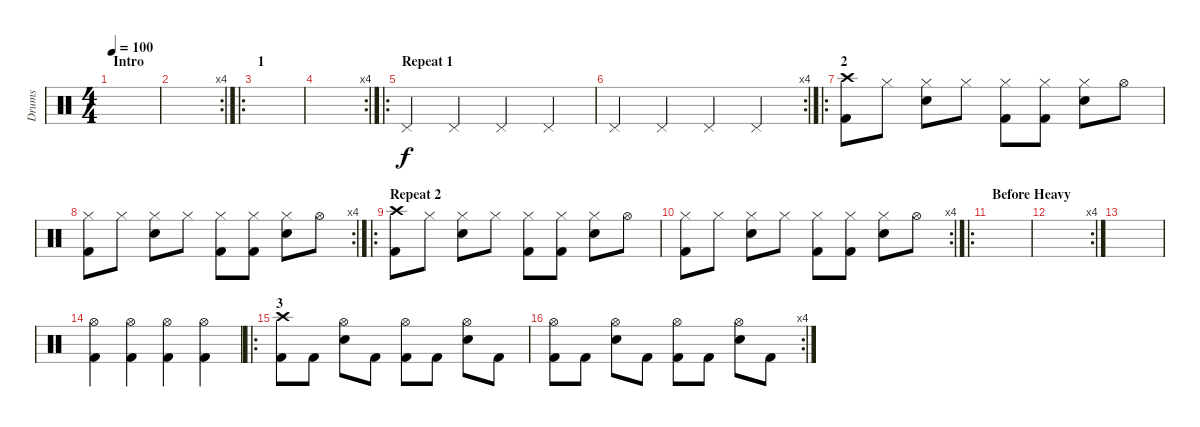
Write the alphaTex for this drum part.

\track ("Drums" "Drums") {instrument percussion}
\staff {score}
\articulation defaults
\ts (4 4)
\section ("" "Intro")
\tempo 100
\clef neutral
\ks c
|
\rc 4
|
\ro
\section ("" "1")
|
\rc 4
|
\ro
\section ("" "Repeat 1")
"Pedal Hi-Hat (hit)".4 "Pedal Hi-Hat (hit)".4 "Pedal Hi-Hat (hit)".4 "Pedal Hi-Hat (hit)".4 |
\rc 4 "Pedal Hi-Hat (hit)".4 "Pedal Hi-Hat (hit)".4 "Pedal Hi-Hat (hit)".4 "Pedal Hi-Hat (hit)".4
|
\ro
\section ("" "2")
("Crash high (hit)" "Kick (hit) 2").8 "Hi-Hat (closed)".8 ("Hi-Hat (closed)" "Electric Snare (hit)").8 "Hi-Hat (closed)".8 ("Hi-Hat (closed)" "Kick (hit) 2").8 ("Hi-Hat (closed)" "Kick (hit) 2").8 ("Hi-Hat (closed)" "Electric Snare (hit)").8 "Hi-Hat (open)".8 |
\rc 4
("Hi-Hat (closed)" "Kick (hit) 2").8 "Hi-Hat (closed)".8 ("Hi-Hat (closed)" "Electric Snare (hit)").8 "Hi-Hat (closed)".8 ("Hi-Hat (closed)" "Kick (hit) 2").8 ("Hi-Hat (closed)" "Kick (hit) 2").8 ("Hi-Hat (closed)" "Electric Snare (hit)").8 "Hi-Hat (open)".8 |
\ro
\section ("" "Repeat 2")
("Crash high (hit)" "Kick (hit) 2").8 "Hi-Hat (closed)".8 ("Hi-Hat (closed)" "Electric Snare (hit)").8 "Hi-Hat (closed)".8 ("Hi-Hat (closed)" "Kick (hit) 2").8 ("Hi-Hat (closed)" "Kick (hit) 2").8 ("Hi-Hat (closed)" "Electric Snare (hit)").8 "Hi-Hat (open)".8 |
\rc 4
("Hi-Hat (closed)" "Kick (hit) 2").8 "Hi-Hat (closed)".8 ("Hi-Hat (closed)" "Electric Snare (hit)").8 "Hi-Hat (closed)".8 ("Hi-Hat (closed)" "Kick (hit) 2").8 ("Hi-Hat (closed)" "Kick (hit) 2").8 ("Hi-Hat (closed)" "Electric Snare (hit)").8 "Hi-Hat (open)".8 |
\ro
\section ("" "Before Heavy")
|
\rc 4
|
|
("Hi-Hat (open)" "Kick (hit) 2").4 ("Hi-Hat (open)" "Kick (hit) 2").4 ("Hi-Hat (open)" "Kick (hit) 2").4 ("Hi-Hat (open)" "Kick (hit) 2").4 |
\ro
\section ("" "3")
("Crash high (hit)" "Kick (hit) 2").8 "Kick (hit) 2".8 ("Hi-Hat (open)" "Electric Snare (hit)").8 "Kick (hit) 2".8 ("Hi-Hat (open)" "Kick (hit) 2").8 "Kick (hit) 2".8 ("Hi-Hat (open)" "Electric Snare (hit)").8 "Kick (hit) 2".8 |
\rc 4
("Hi-Hat (open)" "Kick (hit) 2").8 "Kick (hit) 2".8 ("Hi-Hat (open)" "Electric Snare (hit)").8 "Kick (hit) 2".8 ("Hi-Hat (open)" "Kick (hit) 2").8 "Kick (hit) 2".8 ("Hi-Hat (open)" "Electric Snare (hit)").8 "Kick (hit) 2".8
